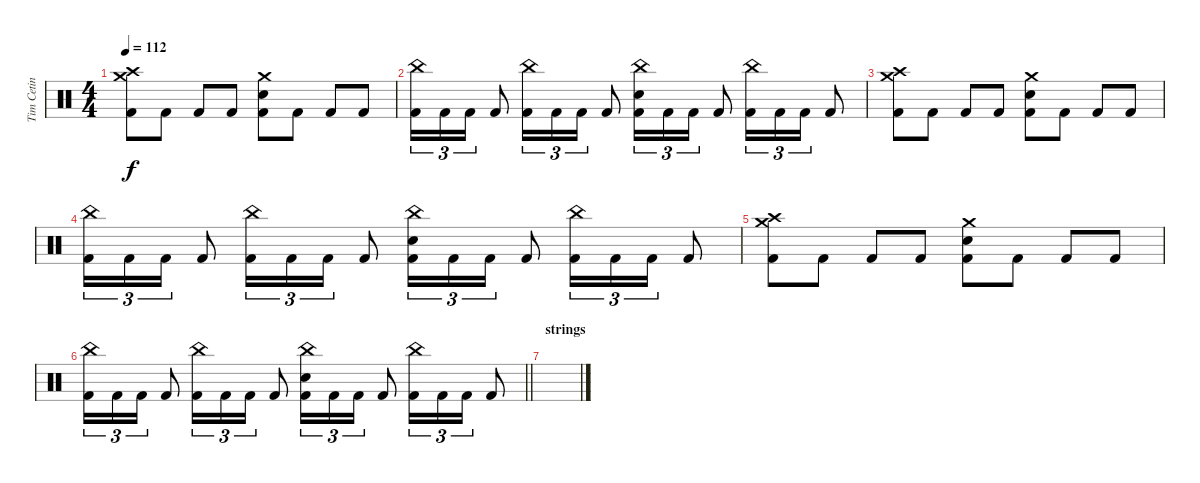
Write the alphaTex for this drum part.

\track ("Tim Cetin" "Tim Cetin") {instrument percussion}
\staff {score}
\articulation defaults
\ts (4 4)
\tempo 112
\clef neutral
\ks c
("Crash high (hit)" "Crash medium (hit)" "Kick (hit) 2").8{dy f} "Kick (hit) 2".8 "Kick (hit) 2".8 "Kick (hit) 2".8 ("Crash medium (hit)" "Snare (hit) 2" "Kick (hit) 2").8 "Kick (hit) 2".8 "Kick (hit) 2".8 "Kick (hit) 2".8 |
("China (hit)" "Kick (hit) 2").16{tu (3 2)} "Kick (hit) 2".16{tu (3 2)} "Kick (hit) 2".16{tu (3 2)} "Kick (hit) 2".8 ("China (hit)" "Kick (hit) 2").16{tu (3 2)} "Kick (hit) 2".16{tu (3 2)} "Kick (hit) 2".16{tu (3 2)} "Kick (hit) 2".8 ("China (hit)" "Snare (hit) 2" "Kick (hit) 2").16{tu (3 2)} "Kick (hit) 2".16{tu (3 2)} "Kick (hit) 2".16{tu (3 2)} "Kick (hit) 2".8 ("China (hit)" "Kick (hit) 2").16{tu (3 2)} "Kick (hit) 2".16{tu (3 2)} "Kick (hit) 2".16{tu (3 2)} "Kick (hit) 2".8 |
("Crash high (hit)" "Crash medium (hit)" "Kick (hit) 2").8{volume 4} "Kick (hit) 2".8 "Kick (hit) 2".8 "Kick (hit) 2".8 ("Crash medium (hit)" "Snare (hit) 2" "Kick (hit) 2").8 "Kick (hit) 2".8 "Kick (hit) 2".8 "Kick (hit) 2".8 |
("China (hit)" "Kick (hit) 2").16{tu (3 2)} "Kick (hit) 2".16{tu (3 2)} "Kick (hit) 2".16{tu (3 2)} "Kick (hit) 2".8 ("China (hit)" "Kick (hit) 2").16{tu (3 2)} "Kick (hit) 2".16{tu (3 2)} "Kick (hit) 2".16{tu (3 2)} "Kick (hit) 2".8 ("China (hit)" "Snare (hit) 2" "Kick (hit) 2").16{tu (3 2)} "Kick (hit) 2".16{tu (3 2)} "Kick (hit) 2".16{tu (3 2)} "Kick (hit) 2".8 ("China (hit)" "Kick (hit) 2").16{tu (3 2)} "Kick (hit) 2".16{tu (3 2)} "Kick (hit) 2".16{tu (3 2)} "Kick (hit) 2".8 |
("Crash high (hit)" "Crash medium (hit)" "Kick (hit) 2").8 "Kick (hit) 2".8 "Kick (hit) 2".8 "Kick (hit) 2".8 ("Crash medium (hit)" "Snare (hit) 2" "Kick (hit) 2").8 "Kick (hit) 2".8 "Kick (hit) 2".8 "Kick (hit) 2".8 |
\barLineRight lightlight
("China (hit)" "Kick (hit) 2").16{tu (3 2)} "Kick (hit) 2".16{tu (3 2)} "Kick (hit) 2".16{tu (3 2)} "Kick (hit) 2".8 ("China (hit)" "Kick (hit) 2").16{tu (3 2)} "Kick (hit) 2".16{tu (3 2)} "Kick (hit) 2".16{tu (3 2)} "Kick (hit) 2".8 ("China (hit)" "Snare (hit) 2" "Kick (hit) 2").16{tu (3 2)} "Kick (hit) 2".16{tu (3 2)} "Kick (hit) 2".16{tu (3 2)} "Kick (hit) 2".8 ("China (hit)" "Kick (hit) 2").16{tu (3 2)} "Kick (hit) 2".16{tu (3 2)} "Kick (hit) 2".16{tu (3 2)} "Kick (hit) 2".8 |
\section ("" "strings")
